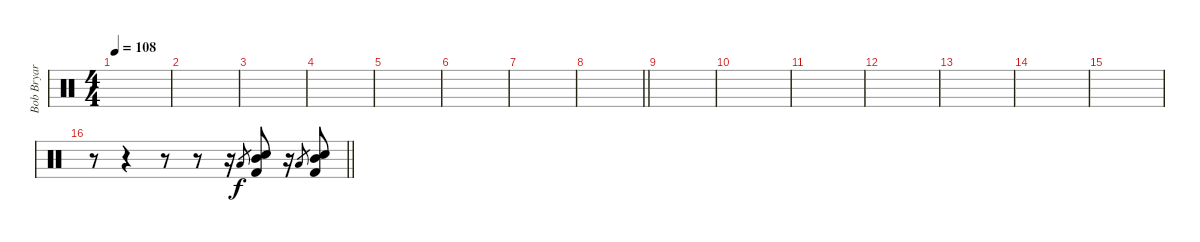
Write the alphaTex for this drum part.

\track ("Bob Bryar (Drums)" "Bob Bryar ") {instrument percussion}
\staff {score}
\articulation defaults
\ts (4 4)
\tempo 108
\clef neutral
\ks c
|
|
|
|
|
|
|
\barLineRight lightlight
|
|
|
|
|
|
|
|
\barLineRight lightlight
r.8 r.4 r.8 r.8 r.16 "Low Tom (hit)".8{gr} ("Mid Tom (hit)" "Electric Snare (hit)" "Kick (hit) 2").8{volume 16 balance 4} r.16 "Low Tom (hit)".8{gr} ("Mid Tom (hit)" "Electric Snare (hit)" "Kick (hit) 2").8{volume 16 balance 13}
